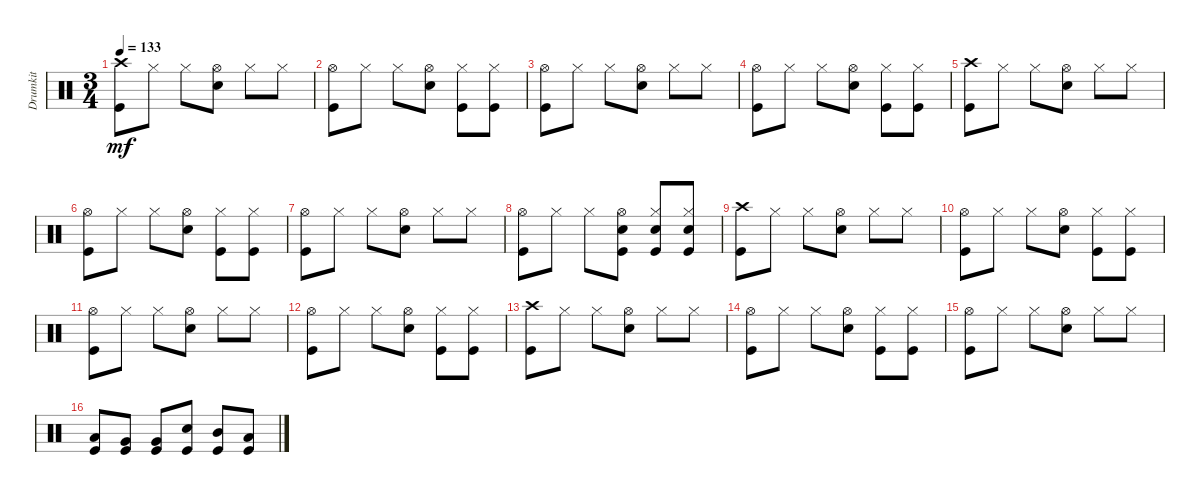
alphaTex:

\track ("Drumkit" "Drumkit") {instrument percussion}
\staff {score}
\articulation defaults
\ts (3 4)
\tempo 133
\clef neutral
\ks c
("Crash high (hit)" "Kick (hit)").8{dy mf} "Hi-Hat (closed)".8 "Hi-Hat (closed)".8 ("Hi-Hat (open)" "Snare (hit) 2").8 "Hi-Hat (closed)".8 "Hi-Hat (closed)".8 |
("Kick (hit)" "Hi-Hat (open)").8 "Hi-Hat (closed)".8 "Hi-Hat (closed)".8 ("Hi-Hat (open)" "Snare (hit) 2").8 ("Hi-Hat (closed)" "Kick (hit)").8 ("Hi-Hat (closed)" "Kick (hit)").8 |
("Kick (hit)" "Hi-Hat (open)").8 "Hi-Hat (closed)".8 "Hi-Hat (closed)".8 ("Hi-Hat (open)" "Snare (hit) 2").8 "Hi-Hat (closed)".8 "Hi-Hat (closed)".8 |
("Kick (hit)" "Hi-Hat (open)").8 "Hi-Hat (closed)".8 "Hi-Hat (closed)".8 ("Hi-Hat (open)" "Snare (hit) 2").8 ("Hi-Hat (closed)" "Kick (hit)").8 ("Hi-Hat (closed)" "Kick (hit)").8 |
("Crash high (hit)" "Kick (hit)").8 "Hi-Hat (closed)".8 "Hi-Hat (closed)".8 ("Hi-Hat (open)" "Snare (hit) 2").8 "Hi-Hat (closed)".8 "Hi-Hat (closed)".8 |
("Kick (hit)" "Hi-Hat (open)").8 "Hi-Hat (closed)".8 "Hi-Hat (closed)".8 ("Hi-Hat (open)" "Snare (hit) 2").8 ("Hi-Hat (closed)" "Kick (hit)").8 ("Hi-Hat (closed)" "Kick (hit)").8 |
("Kick (hit)" "Hi-Hat (open)").8 "Hi-Hat (closed)".8 "Hi-Hat (closed)".8 ("Hi-Hat (open)" "Snare (hit) 2").8 "Hi-Hat (closed)".8 "Hi-Hat (closed)".8 |
("Kick (hit)" "Hi-Hat (open)").8 "Hi-Hat (closed)".8 "Hi-Hat (closed)".8 ("Hi-Hat (open)" "Snare (hit) 2" "Kick (hit)").8 ("Hi-Hat (closed)" "Kick (hit)" "Snare (hit) 2").8 ("Hi-Hat (closed)" "Kick (hit)" "Snare (hit) 2").8 |
("Crash high (hit)" "Kick (hit)").8 "Hi-Hat (closed)".8 "Hi-Hat (closed)".8 ("Hi-Hat (open)" "Snare (hit) 2").8 "Hi-Hat (closed)".8 "Hi-Hat (closed)".8 |
("Kick (hit)" "Hi-Hat (open)").8 "Hi-Hat (closed)".8 "Hi-Hat (closed)".8 ("Hi-Hat (open)" "Snare (hit) 2").8 ("Hi-Hat (closed)" "Kick (hit)").8 ("Hi-Hat (closed)" "Kick (hit)").8 |
("Kick (hit)" "Hi-Hat (open)").8 "Hi-Hat (closed)".8 "Hi-Hat (closed)".8 ("Hi-Hat (open)" "Snare (hit) 2").8 "Hi-Hat (closed)".8 "Hi-Hat (closed)".8 |
("Kick (hit)" "Hi-Hat (open)").8 "Hi-Hat (closed)".8 "Hi-Hat (closed)".8 ("Hi-Hat (open)" "Snare (hit) 2").8 ("Hi-Hat (closed)" "Kick (hit)").8 ("Hi-Hat (closed)" "Kick (hit)").8 |
("Crash high (hit)" "Kick (hit)").8 "Hi-Hat (closed)".8 "Hi-Hat (closed)".8 ("Hi-Hat (open)" "Snare (hit) 2").8 "Hi-Hat (closed)".8 "Hi-Hat (closed)".8 |
("Kick (hit)" "Hi-Hat (open)").8 "Hi-Hat (closed)".8 "Hi-Hat (closed)".8 ("Hi-Hat (open)" "Snare (hit) 2").8 ("Hi-Hat (closed)" "Kick (hit)").8 ("Hi-Hat (closed)" "Kick (hit)").8 |
("Kick (hit)" "Hi-Hat (open)").8 "Hi-Hat (closed)".8 "Hi-Hat (closed)".8 ("Hi-Hat (open)" "Snare (hit) 2").8 "Hi-Hat (closed)".8 "Hi-Hat (closed)".8 |
("Kick (hit)" "Low Tom (hit)").8 ("Kick (hit)" "Very Low Tom (hit)").8 ("Kick (hit)" "Very Low Tom (hit)").8 ("Kick (hit)" "Snare (hit) 2").8 ("Kick (hit)" "Mid Tom (hit)").8 ("Kick (hit)" "Low Tom (hit)").8
